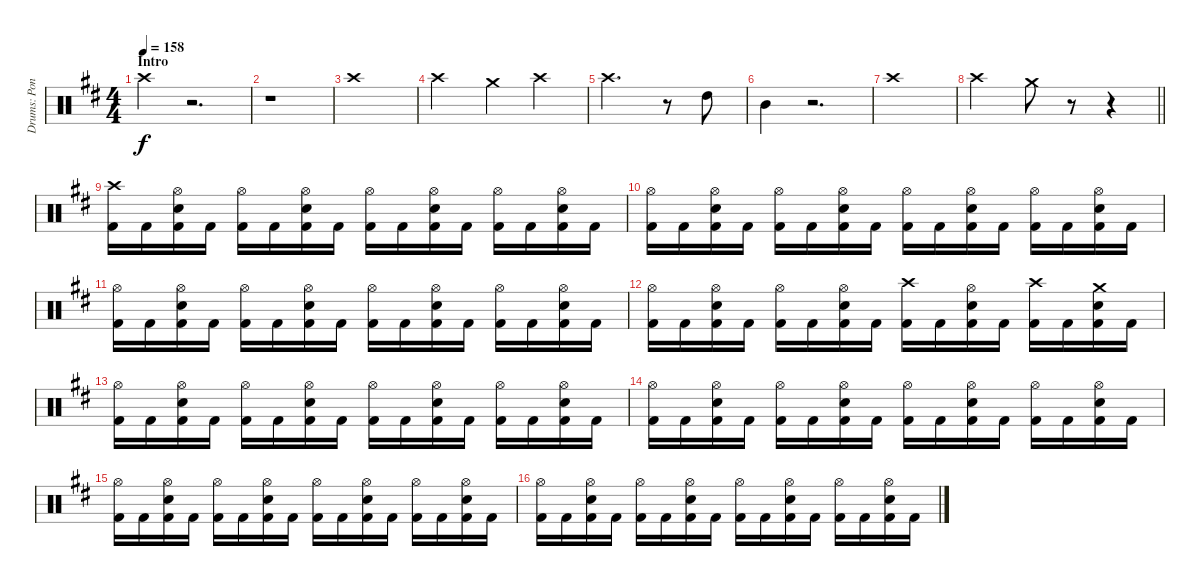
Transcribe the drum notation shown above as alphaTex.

\track ("Drums: Pontus Jansson" "Drums: Pon") {instrument percussion}
\staff {score}
\articulation defaults
\ts (4 4)
\section ("" "Intro")
\tempo 158
\clef neutral
\ks bminor "Crash high (hit)".4{dy f}
r.2{d} |
r.1 |
"Crash high (hit)".1 |
"Crash high (hit)".2 "Crash medium (hit)".4 "Crash high (hit)".4 |
"Crash high (hit)".2{d} r.8 "High Tom (hit)".8 |
"Mid Tom (hit)".4 r.2{d} |
"Crash high (hit)".1 |
\barLineRight lightlight "Crash high (hit)".2 "Crash medium (hit)".8
r.8 r.4 |
("Crash high (hit)" "Kick (hit) 2").16 "Kick (hit) 2".16 ("Hi-Hat (open)" "Electric Snare (hit)" "Kick (hit) 2").16 "Kick (hit) 2".16 ("Hi-Hat (open)" "Kick (hit) 2").16 "Kick (hit) 2".16 ("Hi-Hat (open)" "Electric Snare (hit)" "Kick (hit) 2").16 "Kick (hit) 2".16 ("Hi-Hat (open)" "Kick (hit) 2").16 "Kick (hit) 2".16 ("Hi-Hat (open)" "Electric Snare (hit)" "Kick (hit) 2").16 "Kick (hit) 2".16 ("Hi-Hat (open)" "Kick (hit) 2").16 "Kick (hit) 2".16 ("Hi-Hat (open)" "Electric Snare (hit)" "Kick (hit) 2").16 "Kick (hit) 2".16 |
("Hi-Hat (open)" "Kick (hit) 2").16 "Kick (hit) 2".16 ("Hi-Hat (open)" "Electric Snare (hit)" "Kick (hit) 2").16 "Kick (hit) 2".16 ("Hi-Hat (open)" "Kick (hit) 2").16 "Kick (hit) 2".16 ("Hi-Hat (open)" "Electric Snare (hit)" "Kick (hit) 2").16 "Kick (hit) 2".16 ("Hi-Hat (open)" "Kick (hit) 2").16 "Kick (hit) 2".16 ("Hi-Hat (open)" "Electric Snare (hit)" "Kick (hit) 2").16 "Kick (hit) 2".16 ("Hi-Hat (open)" "Kick (hit) 2").16 "Kick (hit) 2".16 ("Hi-Hat (open)" "Electric Snare (hit)" "Kick (hit) 2").16 "Kick (hit) 2".16 |
("Hi-Hat (open)" "Kick (hit) 2").16 "Kick (hit) 2".16 ("Hi-Hat (open)" "Electric Snare (hit)" "Kick (hit) 2").16 "Kick (hit) 2".16 ("Hi-Hat (open)" "Kick (hit) 2").16 "Kick (hit) 2".16 ("Hi-Hat (open)" "Electric Snare (hit)" "Kick (hit) 2").16 "Kick (hit) 2".16 ("Hi-Hat (open)" "Kick (hit) 2").16 "Kick (hit) 2".16 ("Hi-Hat (open)" "Electric Snare (hit)" "Kick (hit) 2").16 "Kick (hit) 2".16 ("Hi-Hat (open)" "Kick (hit) 2").16 "Kick (hit) 2".16 ("Hi-Hat (open)" "Electric Snare (hit)" "Kick (hit) 2").16 "Kick (hit) 2".16 |
("Hi-Hat (open)" "Kick (hit) 2").16 "Kick (hit) 2".16 ("Hi-Hat (open)" "Electric Snare (hit)" "Kick (hit) 2").16 "Kick (hit) 2".16 ("Hi-Hat (open)" "Kick (hit) 2").16 "Kick (hit) 2".16 ("Hi-Hat (open)" "Electric Snare (hit)" "Kick (hit) 2").16 "Kick (hit) 2".16 ("Crash high (hit)" "Kick (hit) 2").16 "Kick (hit) 2".16 ("Hi-Hat (open)" "Electric Snare (hit)" "Kick (hit) 2").16 "Kick (hit) 2".16 ("Crash high (hit)" "Kick (hit) 2").16 "Kick (hit) 2".16 ("Crash medium (hit)" "Electric Snare (hit)" "Kick (hit) 2").16 "Kick (hit) 2".16 |
("Hi-Hat (open)" "Kick (hit) 2").16 "Kick (hit) 2".16 ("Hi-Hat (open)" "Electric Snare (hit)" "Kick (hit) 2").16 "Kick (hit) 2".16 ("Hi-Hat (open)" "Kick (hit) 2").16 "Kick (hit) 2".16 ("Hi-Hat (open)" "Electric Snare (hit)" "Kick (hit) 2").16 "Kick (hit) 2".16 ("Hi-Hat (open)" "Kick (hit) 2").16 "Kick (hit) 2".16 ("Hi-Hat (open)" "Electric Snare (hit)" "Kick (hit) 2").16 "Kick (hit) 2".16 ("Hi-Hat (open)" "Kick (hit) 2").16 "Kick (hit) 2".16 ("Hi-Hat (open)" "Electric Snare (hit)" "Kick (hit) 2").16 "Kick (hit) 2".16 |
("Hi-Hat (open)" "Kick (hit) 2").16 "Kick (hit) 2".16 ("Hi-Hat (open)" "Electric Snare (hit)" "Kick (hit) 2").16 "Kick (hit) 2".16 ("Hi-Hat (open)" "Kick (hit) 2").16 "Kick (hit) 2".16 ("Hi-Hat (open)" "Electric Snare (hit)" "Kick (hit) 2").16 "Kick (hit) 2".16 ("Hi-Hat (open)" "Kick (hit) 2").16 "Kick (hit) 2".16 ("Hi-Hat (open)" "Electric Snare (hit)" "Kick (hit) 2").16 "Kick (hit) 2".16 ("Hi-Hat (open)" "Kick (hit) 2").16 "Kick (hit) 2".16 ("Hi-Hat (open)" "Electric Snare (hit)" "Kick (hit) 2").16 "Kick (hit) 2".16 |
("Hi-Hat (open)" "Kick (hit) 2").16 "Kick (hit) 2".16 ("Hi-Hat (open)" "Electric Snare (hit)" "Kick (hit) 2").16 "Kick (hit) 2".16 ("Hi-Hat (open)" "Kick (hit) 2").16 "Kick (hit) 2".16 ("Hi-Hat (open)" "Electric Snare (hit)" "Kick (hit) 2").16 "Kick (hit) 2".16 ("Hi-Hat (open)" "Kick (hit) 2").16 "Kick (hit) 2".16 ("Hi-Hat (open)" "Electric Snare (hit)" "Kick (hit) 2").16 "Kick (hit) 2".16 ("Hi-Hat (open)" "Kick (hit) 2").16 "Kick (hit) 2".16 ("Hi-Hat (open)" "Electric Snare (hit)" "Kick (hit) 2").16 "Kick (hit) 2".16 |
("Hi-Hat (open)" "Kick (hit) 2").16 "Kick (hit) 2".16 ("Hi-Hat (open)" "Electric Snare (hit)" "Kick (hit) 2").16 "Kick (hit) 2".16 ("Hi-Hat (open)" "Kick (hit) 2").16 "Kick (hit) 2".16 ("Hi-Hat (open)" "Electric Snare (hit)" "Kick (hit) 2").16 "Kick (hit) 2".16 ("Hi-Hat (open)" "Kick (hit) 2").16 "Kick (hit) 2".16 ("Hi-Hat (open)" "Electric Snare (hit)" "Kick (hit) 2").16 "Kick (hit) 2".16 ("Hi-Hat (open)" "Kick (hit) 2").16 "Kick (hit) 2".16 ("Hi-Hat (open)" "Electric Snare (hit)" "Kick (hit) 2").16 "Kick (hit) 2".16
